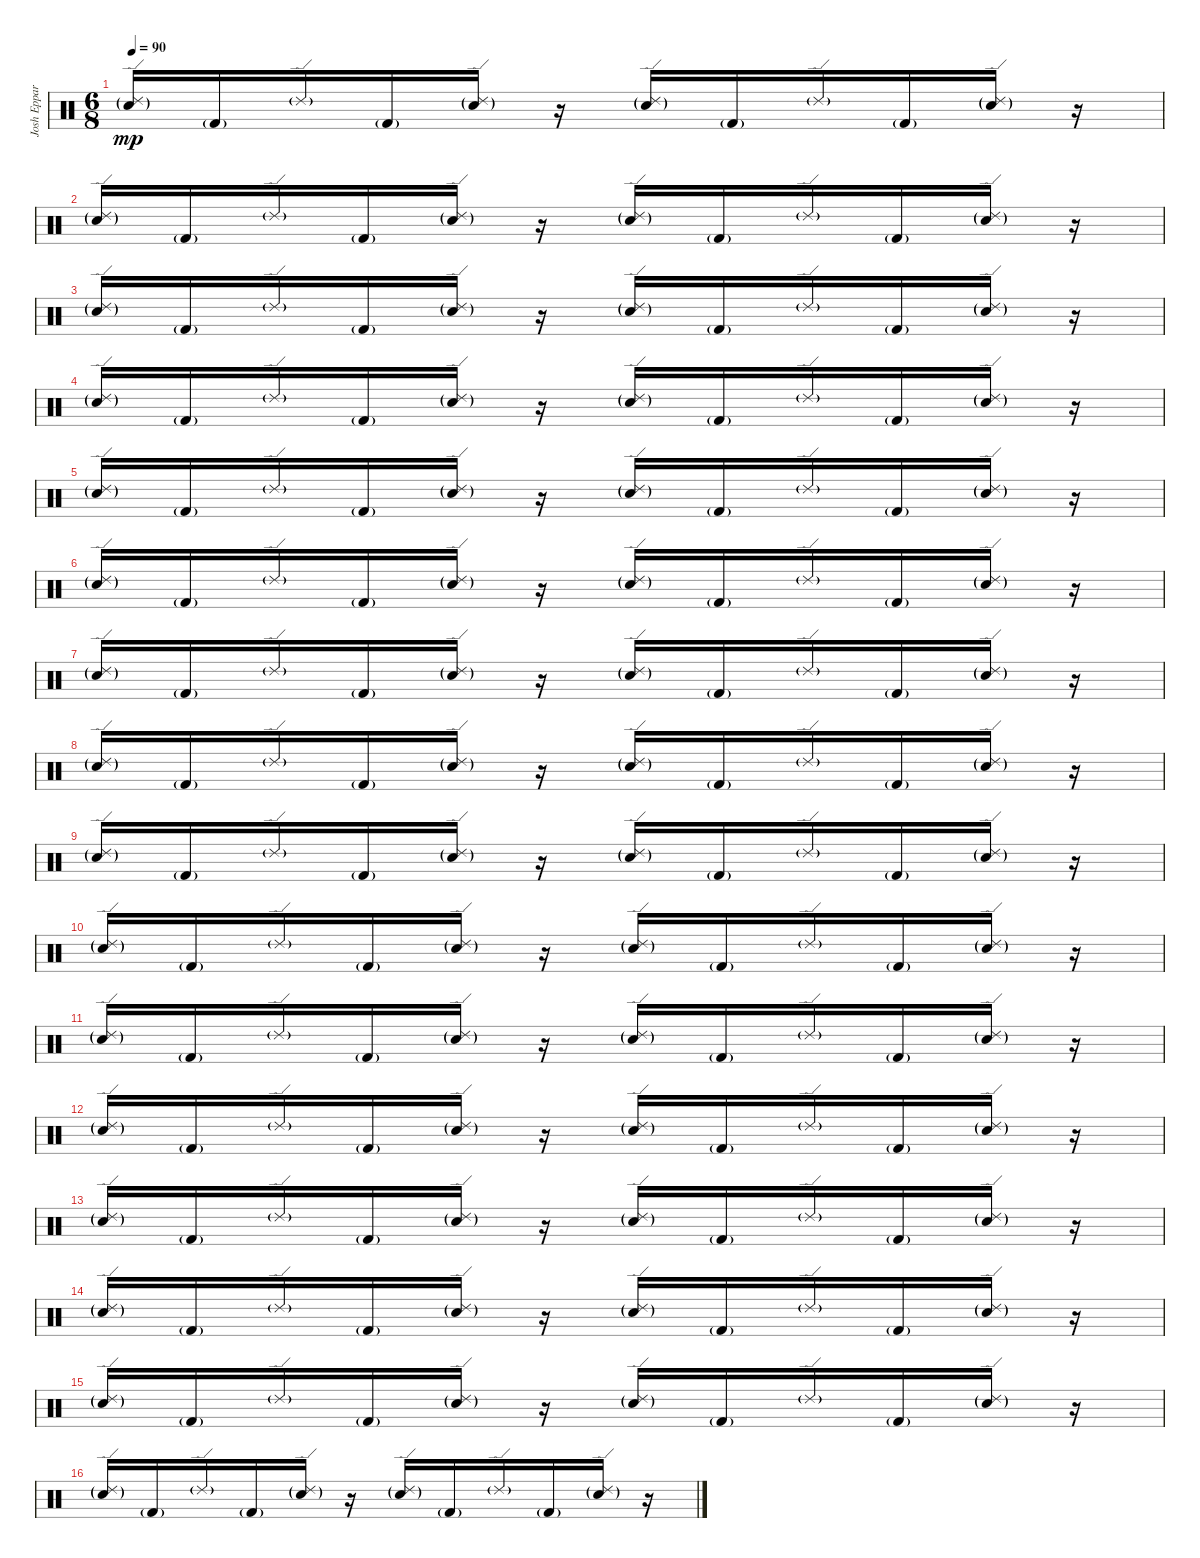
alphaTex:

\track ("Josh Eppard" "Josh Eppar") {instrument percussion}
\staff {score}
\articulation defaults
\ts (6 8)
\tempo 90
\clef neutral
\ks c
("Ride (edge) 2"{g} "Electric Snare (hit)"{g}).16{dy mp} "Kick (hit) 2"{g}.16 "Ride (edge) 2"{g}.16 "Kick (hit) 2"{g}.16 ("Ride (edge) 2"{g} "Electric Snare (hit)"{g}).16 r.16 ("Ride (edge) 2"{g} "Electric Snare (hit)"{g}).16 "Kick (hit) 2"{g}.16 "Ride (edge) 2"{g}.16 "Kick (hit) 2"{g}.16 ("Ride (edge) 2"{g} "Electric Snare (hit)"{g}).16 r.16 |
("Ride (edge) 2"{g} "Electric Snare (hit)"{g}).16 "Kick (hit) 2"{g}.16 "Ride (edge) 2"{g}.16 "Kick (hit) 2"{g}.16 ("Ride (edge) 2"{g} "Electric Snare (hit)"{g}).16 r.16 ("Ride (edge) 2"{g} "Electric Snare (hit)"{g}).16 "Kick (hit) 2"{g}.16 "Ride (edge) 2"{g}.16 "Kick (hit) 2"{g}.16 ("Ride (edge) 2"{g} "Electric Snare (hit)"{g}).16 r.16 |
("Ride (edge) 2"{g} "Electric Snare (hit)"{g}).16 "Kick (hit) 2"{g}.16 "Ride (edge) 2"{g}.16 "Kick (hit) 2"{g}.16 ("Ride (edge) 2"{g} "Electric Snare (hit)"{g}).16 r.16 ("Ride (edge) 2"{g} "Electric Snare (hit)"{g}).16 "Kick (hit) 2"{g}.16 "Ride (edge) 2"{g}.16 "Kick (hit) 2"{g}.16 ("Ride (edge) 2"{g} "Electric Snare (hit)"{g}).16 r.16 |
("Ride (edge) 2"{g} "Electric Snare (hit)"{g}).16 "Kick (hit) 2"{g}.16 "Ride (edge) 2"{g}.16 "Kick (hit) 2"{g}.16 ("Ride (edge) 2"{g} "Electric Snare (hit)"{g}).16 r.16 ("Ride (edge) 2"{g} "Electric Snare (hit)"{g}).16 "Kick (hit) 2"{g}.16 "Ride (edge) 2"{g}.16 "Kick (hit) 2"{g}.16 ("Ride (edge) 2"{g} "Electric Snare (hit)"{g}).16 r.16 |
("Ride (edge) 2"{g} "Electric Snare (hit)"{g}).16 "Kick (hit) 2"{g}.16 "Ride (edge) 2"{g}.16 "Kick (hit) 2"{g}.16 ("Ride (edge) 2"{g} "Electric Snare (hit)"{g}).16 r.16 ("Ride (edge) 2"{g} "Electric Snare (hit)"{g}).16 "Kick (hit) 2"{g}.16 "Ride (edge) 2"{g}.16 "Kick (hit) 2"{g}.16 ("Ride (edge) 2"{g} "Electric Snare (hit)"{g}).16 r.16 |
("Ride (edge) 2"{g} "Electric Snare (hit)"{g}).16 "Kick (hit) 2"{g}.16 "Ride (edge) 2"{g}.16 "Kick (hit) 2"{g}.16 ("Ride (edge) 2"{g} "Electric Snare (hit)"{g}).16 r.16 ("Ride (edge) 2"{g} "Electric Snare (hit)"{g}).16 "Kick (hit) 2"{g}.16 "Ride (edge) 2"{g}.16 "Kick (hit) 2"{g}.16 ("Ride (edge) 2"{g} "Electric Snare (hit)"{g}).16 r.16 |
("Ride (edge) 2"{g} "Electric Snare (hit)"{g}).16 "Kick (hit) 2"{g}.16 "Ride (edge) 2"{g}.16 "Kick (hit) 2"{g}.16 ("Ride (edge) 2"{g} "Electric Snare (hit)"{g}).16 r.16 ("Ride (edge) 2"{g} "Electric Snare (hit)"{g}).16 "Kick (hit) 2"{g}.16 "Ride (edge) 2"{g}.16 "Kick (hit) 2"{g}.16 ("Ride (edge) 2"{g} "Electric Snare (hit)"{g}).16 r.16 |
("Ride (edge) 2"{g} "Electric Snare (hit)"{g}).16 "Kick (hit) 2"{g}.16 "Ride (edge) 2"{g}.16 "Kick (hit) 2"{g}.16 ("Ride (edge) 2"{g} "Electric Snare (hit)"{g}).16 r.16 ("Ride (edge) 2"{g} "Electric Snare (hit)"{g}).16 "Kick (hit) 2"{g}.16 "Ride (edge) 2"{g}.16 "Kick (hit) 2"{g}.16 ("Ride (edge) 2"{g} "Electric Snare (hit)"{g}).16 r.16 |
("Ride (edge) 2"{g} "Electric Snare (hit)"{g}).16 "Kick (hit) 2"{g}.16 "Ride (edge) 2"{g}.16 "Kick (hit) 2"{g}.16 ("Ride (edge) 2"{g} "Electric Snare (hit)"{g}).16 r.16 ("Ride (edge) 2"{g} "Electric Snare (hit)"{g}).16 "Kick (hit) 2"{g}.16 "Ride (edge) 2"{g}.16 "Kick (hit) 2"{g}.16 ("Ride (edge) 2"{g} "Electric Snare (hit)"{g}).16 r.16 |
("Ride (edge) 2"{g} "Electric Snare (hit)"{g}).16 "Kick (hit) 2"{g}.16 "Ride (edge) 2"{g}.16 "Kick (hit) 2"{g}.16 ("Ride (edge) 2"{g} "Electric Snare (hit)"{g}).16 r.16 ("Ride (edge) 2"{g} "Electric Snare (hit)"{g}).16 "Kick (hit) 2"{g}.16 "Ride (edge) 2"{g}.16 "Kick (hit) 2"{g}.16 ("Ride (edge) 2"{g} "Electric Snare (hit)"{g}).16 r.16 |
("Ride (edge) 2"{g} "Electric Snare (hit)"{g}).16 "Kick (hit) 2"{g}.16 "Ride (edge) 2"{g}.16 "Kick (hit) 2"{g}.16 ("Ride (edge) 2"{g} "Electric Snare (hit)"{g}).16 r.16 ("Ride (edge) 2"{g} "Electric Snare (hit)"{g}).16 "Kick (hit) 2"{g}.16 "Ride (edge) 2"{g}.16 "Kick (hit) 2"{g}.16 ("Ride (edge) 2"{g} "Electric Snare (hit)"{g}).16 r.16 |
("Ride (edge) 2"{g} "Electric Snare (hit)"{g}).16 "Kick (hit) 2"{g}.16 "Ride (edge) 2"{g}.16 "Kick (hit) 2"{g}.16 ("Ride (edge) 2"{g} "Electric Snare (hit)"{g}).16 r.16 ("Ride (edge) 2"{g} "Electric Snare (hit)"{g}).16 "Kick (hit) 2"{g}.16 "Ride (edge) 2"{g}.16 "Kick (hit) 2"{g}.16 ("Ride (edge) 2"{g} "Electric Snare (hit)"{g}).16 r.16 |
("Ride (edge) 2"{g} "Electric Snare (hit)"{g}).16 "Kick (hit) 2"{g}.16 "Ride (edge) 2"{g}.16 "Kick (hit) 2"{g}.16 ("Ride (edge) 2"{g} "Electric Snare (hit)"{g}).16 r.16 ("Ride (edge) 2"{g} "Electric Snare (hit)"{g}).16 "Kick (hit) 2"{g}.16 "Ride (edge) 2"{g}.16 "Kick (hit) 2"{g}.16 ("Ride (edge) 2"{g} "Electric Snare (hit)"{g}).16 r.16 |
("Ride (edge) 2"{g} "Electric Snare (hit)"{g}).16 "Kick (hit) 2"{g}.16 "Ride (edge) 2"{g}.16 "Kick (hit) 2"{g}.16 ("Ride (edge) 2"{g} "Electric Snare (hit)"{g}).16 r.16 ("Ride (edge) 2"{g} "Electric Snare (hit)"{g}).16 "Kick (hit) 2"{g}.16 "Ride (edge) 2"{g}.16 "Kick (hit) 2"{g}.16 ("Ride (edge) 2"{g} "Electric Snare (hit)"{g}).16 r.16 |
("Ride (edge) 2"{g} "Electric Snare (hit)"{g}).16 "Kick (hit) 2"{g}.16 "Ride (edge) 2"{g}.16 "Kick (hit) 2"{g}.16 ("Ride (edge) 2"{g} "Electric Snare (hit)"{g}).16 r.16 ("Ride (edge) 2"{g} "Electric Snare (hit)"{g}).16 "Kick (hit) 2"{g}.16 "Ride (edge) 2"{g}.16 "Kick (hit) 2"{g}.16 ("Ride (edge) 2"{g} "Electric Snare (hit)"{g}).16 r.16 |
("Ride (edge) 2"{g} "Electric Snare (hit)"{g}).16 "Kick (hit) 2"{g}.16 "Ride (edge) 2"{g}.16 "Kick (hit) 2"{g}.16 ("Ride (edge) 2"{g} "Electric Snare (hit)"{g}).16 r.16 ("Ride (edge) 2"{g} "Electric Snare (hit)"{g}).16 "Kick (hit) 2"{g}.16 "Ride (edge) 2"{g}.16 "Kick (hit) 2"{g}.16 ("Ride (edge) 2"{g} "Electric Snare (hit)"{g}).16 r.16
